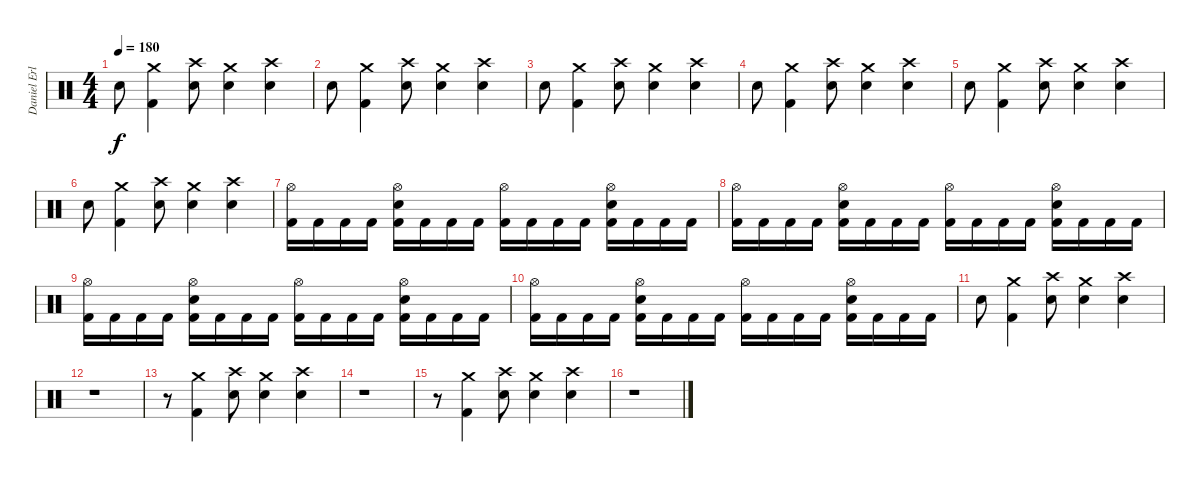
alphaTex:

\track ("Daniel Erlandson" "Daniel Erl") {instrument percussion}
\staff {score}
\articulation defaults
\ts (4 4)
\tempo 180
\clef neutral
\ks c "Electric Snare (hit)".8{dy f}
("Crash medium (hit)" "Kick (hit) 2").4 ("Crash high (hit)" "Electric Snare (hit)").8 ("Crash medium (hit)" "Electric Snare (hit)").4 ("Crash high (hit)" "Electric Snare (hit)").4 |
"Electric Snare (hit)".8 ("Crash medium (hit)" "Kick (hit) 2").4 ("Crash high (hit)" "Electric Snare (hit)").8 ("Crash medium (hit)" "Electric Snare (hit)").4 ("Crash high (hit)" "Electric Snare (hit)").4 |
"Electric Snare (hit)".8 ("Crash medium (hit)" "Kick (hit) 2").4 ("Crash high (hit)" "Electric Snare (hit)").8 ("Crash medium (hit)" "Electric Snare (hit)").4 ("Crash high (hit)" "Electric Snare (hit)").4 |
"Electric Snare (hit)".8 ("Crash medium (hit)" "Kick (hit) 2").4 ("Crash high (hit)" "Electric Snare (hit)").8 ("Crash medium (hit)" "Electric Snare (hit)").4 ("Crash high (hit)" "Electric Snare (hit)").4 |
"Electric Snare (hit)".8 ("Crash medium (hit)" "Kick (hit) 2").4 ("Crash high (hit)" "Electric Snare (hit)").8 ("Crash medium (hit)" "Electric Snare (hit)").4 ("Crash high (hit)" "Electric Snare (hit)").4 |
"Electric Snare (hit)".8 ("Crash medium (hit)" "Kick (hit) 2").4 ("Crash high (hit)" "Electric Snare (hit)").8 ("Crash medium (hit)" "Electric Snare (hit)").4 ("Crash high (hit)" "Electric Snare (hit)").4 |
("Hi-Hat (open)" "Kick (hit) 2").16 "Kick (hit) 2".16 "Kick (hit) 2".16 "Kick (hit) 2".16 ("Hi-Hat (open)" "Electric Snare (hit)" "Kick (hit) 2").16 "Kick (hit) 2".16 "Kick (hit) 2".16 "Kick (hit) 2".16 ("Hi-Hat (open)" "Kick (hit) 2").16 "Kick (hit) 2".16 "Kick (hit) 2".16 "Kick (hit) 2".16 ("Hi-Hat (open)" "Electric Snare (hit)" "Kick (hit) 2").16 "Kick (hit) 2".16 "Kick (hit) 2".16 "Kick (hit) 2".16 |
("Hi-Hat (open)" "Kick (hit) 2").16 "Kick (hit) 2".16 "Kick (hit) 2".16 "Kick (hit) 2".16 ("Hi-Hat (open)" "Electric Snare (hit)" "Kick (hit) 2").16 "Kick (hit) 2".16 "Kick (hit) 2".16 "Kick (hit) 2".16 ("Hi-Hat (open)" "Kick (hit) 2").16 "Kick (hit) 2".16 "Kick (hit) 2".16 "Kick (hit) 2".16 ("Hi-Hat (open)" "Electric Snare (hit)" "Kick (hit) 2").16 "Kick (hit) 2".16 "Kick (hit) 2".16 "Kick (hit) 2".16 |
("Hi-Hat (open)" "Kick (hit) 2").16 "Kick (hit) 2".16 "Kick (hit) 2".16 "Kick (hit) 2".16 ("Hi-Hat (open)" "Electric Snare (hit)" "Kick (hit) 2").16 "Kick (hit) 2".16 "Kick (hit) 2".16 "Kick (hit) 2".16 ("Hi-Hat (open)" "Kick (hit) 2").16 "Kick (hit) 2".16 "Kick (hit) 2".16 "Kick (hit) 2".16 ("Hi-Hat (open)" "Electric Snare (hit)" "Kick (hit) 2").16 "Kick (hit) 2".16 "Kick (hit) 2".16 "Kick (hit) 2".16 |
("Hi-Hat (open)" "Kick (hit) 2").16 "Kick (hit) 2".16 "Kick (hit) 2".16 "Kick (hit) 2".16 ("Hi-Hat (open)" "Electric Snare (hit)" "Kick (hit) 2").16 "Kick (hit) 2".16 "Kick (hit) 2".16 "Kick (hit) 2".16 ("Hi-Hat (open)" "Kick (hit) 2").16 "Kick (hit) 2".16 "Kick (hit) 2".16 "Kick (hit) 2".16 ("Hi-Hat (open)" "Electric Snare (hit)" "Kick (hit) 2").16 "Kick (hit) 2".16 "Kick (hit) 2".16 "Kick (hit) 2".16 |
"Electric Snare (hit)".8 ("Crash medium (hit)" "Kick (hit) 2").4 ("Crash high (hit)" "Electric Snare (hit)").8 ("Crash medium (hit)" "Electric Snare (hit)").4 ("Crash high (hit)" "Electric Snare (hit)").4 |
r.1 |
r.8 ("Crash medium (hit)" "Kick (hit) 2").4 ("Crash high (hit)" "Electric Snare (hit)").8 ("Crash medium (hit)" "Electric Snare (hit)").4 ("Crash high (hit)" "Electric Snare (hit)").4 |
r.1 |
r.8 ("Crash medium (hit)" "Kick (hit) 2").4 ("Crash high (hit)" "Electric Snare (hit)").8 ("Crash medium (hit)" "Electric Snare (hit)").4 ("Crash high (hit)" "Electric Snare (hit)").4 |
r.1
